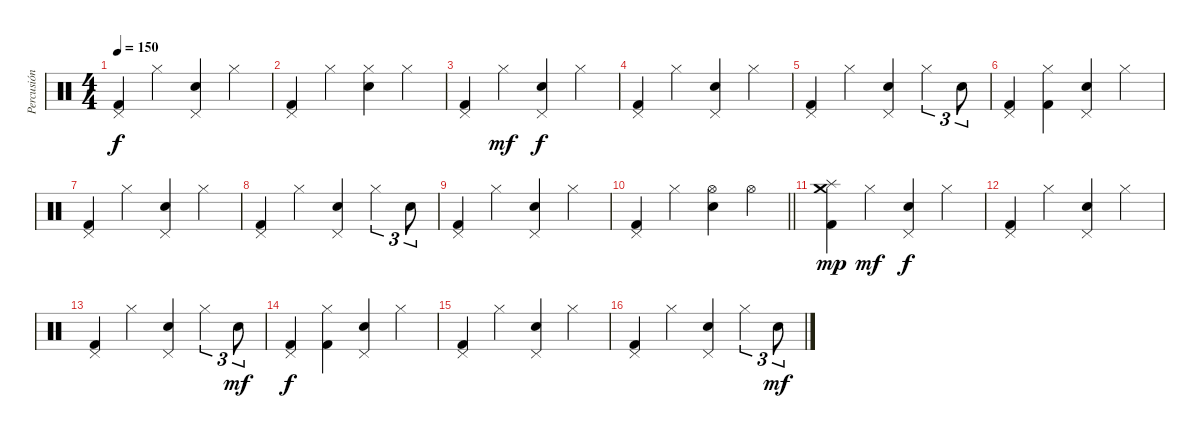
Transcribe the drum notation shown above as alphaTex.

\track ("Percusión" "Percusión") {instrument percussion}
\staff {score}
\articulation defaults
\ts (4 4)
\tempo 150
\clef neutral
\ks c
("Pedal Hi-Hat (hit)" "Kick (hit) 2").4{dy f} "Hi-Hat (closed)".4 ("Pedal Hi-Hat (hit)" "Electric Snare (hit)").4 "Hi-Hat (closed)".4 |
("Pedal Hi-Hat (hit)" "Kick (hit) 2").4 "Hi-Hat (closed)".4 ("Hi-Hat (closed)" "Electric Snare (hit)").4 "Hi-Hat (closed)".4 |
("Pedal Hi-Hat (hit)" "Kick (hit) 2").4 "Hi-Hat (closed)".4{dy mf} ("Pedal Hi-Hat (hit)" "Electric Snare (hit)").4{dy f} "Hi-Hat (closed)".4 |
("Pedal Hi-Hat (hit)" "Kick (hit) 2").4 "Hi-Hat (closed)".4 ("Pedal Hi-Hat (hit)" "Electric Snare (hit)").4 "Hi-Hat (closed)".4 |
("Pedal Hi-Hat (hit)" "Kick (hit) 2").4 "Hi-Hat (closed)".4 ("Pedal Hi-Hat (hit)" "Electric Snare (hit)").4 "Hi-Hat (closed)".4{tu (3 2)} "Electric Snare (hit)".8{tu (3 2)} |
("Pedal Hi-Hat (hit)" "Kick (hit) 2").4 ("Hi-Hat (closed)" "Kick (hit) 2").4 ("Pedal Hi-Hat (hit)" "Electric Snare (hit)").4 "Hi-Hat (closed)".4 |
("Pedal Hi-Hat (hit)" "Kick (hit) 2").4 "Hi-Hat (closed)".4 ("Pedal Hi-Hat (hit)" "Electric Snare (hit)").4 "Hi-Hat (closed)".4 |
("Pedal Hi-Hat (hit)" "Kick (hit) 2").4 "Hi-Hat (closed)".4 ("Pedal Hi-Hat (hit)" "Electric Snare (hit)").4 "Hi-Hat (closed)".4{tu (3 2)} "Electric Snare (hit)".8{tu (3 2)} |
("Pedal Hi-Hat (hit)" "Kick (hit) 2").4 "Hi-Hat (closed)".4 ("Pedal Hi-Hat (hit)" "Electric Snare (hit)").4 "Hi-Hat (closed)".4 |
\barLineRight lightlight
("Pedal Hi-Hat (hit)" "Kick (hit) 2").4 "Hi-Hat (closed)".4 ("Hi-Hat (open)" "Electric Snare (hit)").4 "Hi-Hat (open)".4 |
("Crash medium (hit)" "Splash (hit)" "Kick (hit) 2").4{dy mp} "Hi-Hat (closed)".4{dy mf} ("Pedal Hi-Hat (hit)" "Electric Snare (hit)").4{dy f} "Hi-Hat (closed)".4 |
("Pedal Hi-Hat (hit)" "Kick (hit) 2").4 "Hi-Hat (closed)".4 ("Pedal Hi-Hat (hit)" "Electric Snare (hit)").4 "Hi-Hat (closed)".4 |
("Pedal Hi-Hat (hit)" "Kick (hit) 2").4 "Hi-Hat (closed)".4 ("Pedal Hi-Hat (hit)" "Electric Snare (hit)").4 "Hi-Hat (closed)".4{tu (3 2)} "Electric Snare (hit)".8{tu (3 2) dy mf} |
("Pedal Hi-Hat (hit)" "Kick (hit) 2").4{dy f} ("Hi-Hat (closed)" "Kick (hit) 2").4 ("Pedal Hi-Hat (hit)" "Electric Snare (hit)").4 "Hi-Hat (closed)".4 |
("Pedal Hi-Hat (hit)" "Kick (hit) 2").4 "Hi-Hat (closed)".4 ("Pedal Hi-Hat (hit)" "Electric Snare (hit)").4 "Hi-Hat (closed)".4 |
("Pedal Hi-Hat (hit)" "Kick (hit) 2").4 "Hi-Hat (closed)".4 ("Pedal Hi-Hat (hit)" "Electric Snare (hit)").4 "Hi-Hat (closed)".4{tu (3 2)} "Electric Snare (hit)".8{tu (3 2) dy mf}
